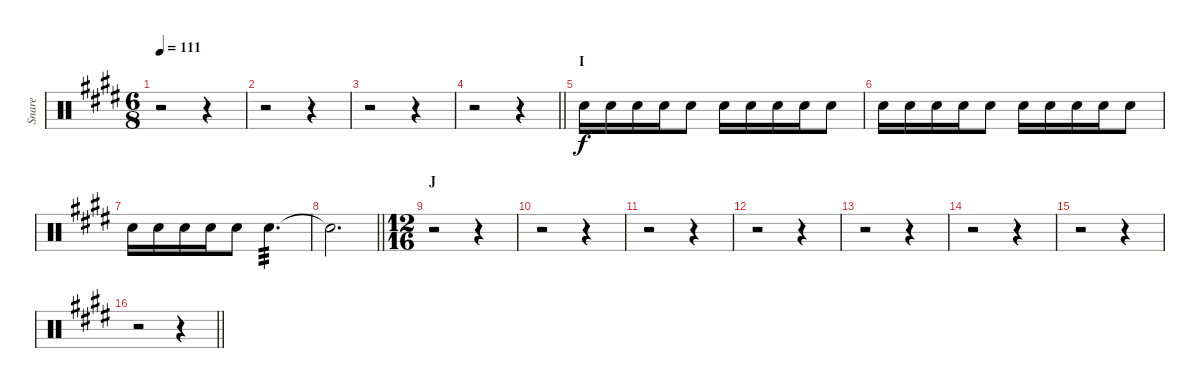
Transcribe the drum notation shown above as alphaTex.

\track ("Snare" "Snare") {instrument percussion}
\staff {score}
\articulation defaults
\ts (6 8)
\tempo 111
\clef neutral
\ks e
r.2{dy f} r.4 |
r.2 r.4 |
r.2 r.4 |
\barLineRight lightlight
r.2 r.4 |
\section ("" "I")
"Electric Snare (hit)".16 "Electric Snare (hit)".16 "Electric Snare (hit)".16 "Electric Snare (hit)".16 "Electric Snare (hit)".8 "Electric Snare (hit)".16 "Electric Snare (hit)".16 "Electric Snare (hit)".16 "Electric Snare (hit)".16 "Electric Snare (hit)".8 |
"Electric Snare (hit)".16 "Electric Snare (hit)".16 "Electric Snare (hit)".16 "Electric Snare (hit)".16 "Electric Snare (hit)".8 "Electric Snare (hit)".16 "Electric Snare (hit)".16 "Electric Snare (hit)".16 "Electric Snare (hit)".16 "Electric Snare (hit)".8 |
"Electric Snare (hit)".16 "Electric Snare (hit)".16 "Electric Snare (hit)".16 "Electric Snare (hit)".16 "Electric Snare (hit)".8 "Electric Snare (hit)".4{d tp 3} |
\barLineRight lightlight "Snare (hit)"{t}.2{d}
|
\ts (12 16)
\section ("" "J")
r.2 r.4 |
r.2 r.4 |
r.2 r.4 |
r.2 r.4 |
r.2 r.4 |
r.2 r.4 |
r.2 r.4 |
\barLineRight lightlight
r.2 r.4
